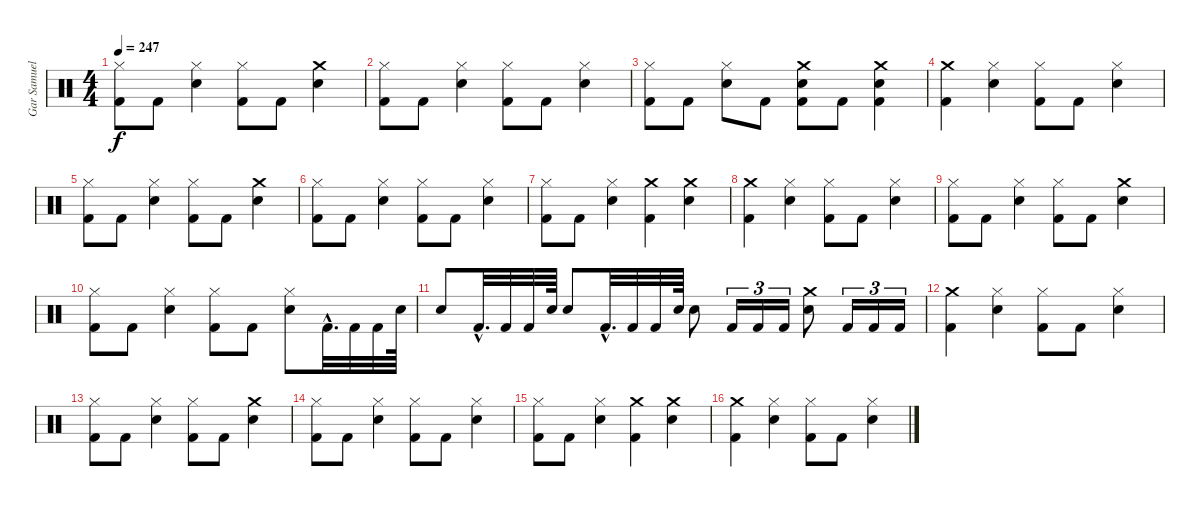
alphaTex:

\track ("Gar Samuelson (Drums)" "Gar Samuel") {instrument percussion}
\staff {score}
\articulation defaults
\ts (4 4)
\tempo 247
\clef neutral
\ks c
("Hi-Hat (closed)" "Kick (hit) 2").8{dy f} "Kick (hit) 2".8 ("Snare (hit) 2" "Hi-Hat (closed)").4 ("Hi-Hat (closed)" "Kick (hit) 2").8 "Kick (hit) 2".8 ("Crash medium (hit)" "Snare (hit) 2").4 |
("Hi-Hat (closed)" "Kick (hit) 2").8 "Kick (hit) 2".8 ("Snare (hit) 2" "Hi-Hat (closed)").4 ("Hi-Hat (closed)" "Kick (hit) 2").8 "Kick (hit) 2".8 ("Snare (hit) 2" "Hi-Hat (closed)").4 |
("Hi-Hat (closed)" "Kick (hit) 2").8 "Kick (hit) 2".8 ("Snare (hit) 2" "Hi-Hat (closed)").8 "Kick (hit) 2".8 ("Snare (hit) 2" "Crash medium (hit)" "Kick (hit) 2").8 "Kick (hit) 2".8 ("Kick (hit) 2" "Crash medium (hit)" "Snare (hit) 2").4 |
("Kick (hit) 2" "Crash medium (hit)").4 ("Hi-Hat (closed)" "Snare (hit) 2").4 ("Hi-Hat (closed)" "Kick (hit) 2").8 "Kick (hit) 2".8 ("Snare (hit) 2" "Hi-Hat (closed)").4 |
("Hi-Hat (closed)" "Kick (hit) 2").8 "Kick (hit) 2".8 ("Snare (hit) 2" "Hi-Hat (closed)").4 ("Hi-Hat (closed)" "Kick (hit) 2").8 "Kick (hit) 2".8 ("Crash medium (hit)" "Snare (hit) 2").4 |
("Hi-Hat (closed)" "Kick (hit) 2").8 "Kick (hit) 2".8 ("Snare (hit) 2" "Hi-Hat (closed)").4 ("Hi-Hat (closed)" "Kick (hit) 2").8 "Kick (hit) 2".8 ("Snare (hit) 2" "Hi-Hat (closed)").4 |
("Hi-Hat (closed)" "Kick (hit) 2").8 "Kick (hit) 2".8 ("Snare (hit) 2" "Hi-Hat (closed)").4 ("Crash medium (hit)" "Kick (hit) 2").4 ("Crash medium (hit)" "Snare (hit) 2").4 |
("Kick (hit) 2" "Crash medium (hit)").4 ("Hi-Hat (closed)" "Snare (hit) 2").4 ("Hi-Hat (closed)" "Kick (hit) 2").8 "Kick (hit) 2".8 ("Snare (hit) 2" "Hi-Hat (closed)").4 |
("Hi-Hat (closed)" "Kick (hit) 2").8 "Kick (hit) 2".8 ("Snare (hit) 2" "Hi-Hat (closed)").4 ("Hi-Hat (closed)" "Kick (hit) 2").8 "Kick (hit) 2".8 ("Crash medium (hit)" "Snare (hit) 2").4 |
("Hi-Hat (closed)" "Kick (hit) 2").8 "Kick (hit) 2".8 ("Snare (hit) 2" "Hi-Hat (closed)").4 ("Hi-Hat (closed)" "Kick (hit) 2").8 "Kick (hit) 2".8 ("Snare (hit) 2" "Hi-Hat (closed)").8 "Kick (hit) 2"{hac}.32{d} "Kick (hit) 2".32 "Kick (hit) 2".32 "Snare (hit) 2".64 |
"Snare (hit) 2".8 "Kick (hit) 2"{hac}.32{d} "Kick (hit) 2".32 "Kick (hit) 2".32 "Snare (hit) 2".64 "Snare (hit) 2".8 "Kick (hit) 2"{hac}.32{d} "Kick (hit) 2".32 "Kick (hit) 2".32 "Snare (hit) 2".64 "Snare (hit) 2".8 "Kick (hit) 2".16{tu (3 2)} "Kick (hit) 2".16{tu (3 2)} "Kick (hit) 2".16{tu (3 2)} ("Crash medium (hit)" "Snare (hit) 2").8 "Kick (hit) 2".16{tu (3 2)} "Kick (hit) 2".16{tu (3 2)} "Kick (hit) 2".16{tu (3 2)} |
("Kick (hit) 2" "Crash medium (hit)").4 ("Hi-Hat (closed)" "Snare (hit) 2").4 ("Hi-Hat (closed)" "Kick (hit) 2").8 "Kick (hit) 2".8 ("Snare (hit) 2" "Hi-Hat (closed)").4 |
("Hi-Hat (closed)" "Kick (hit) 2").8 "Kick (hit) 2".8 ("Snare (hit) 2" "Hi-Hat (closed)").4 ("Hi-Hat (closed)" "Kick (hit) 2").8 "Kick (hit) 2".8 ("Crash medium (hit)" "Snare (hit) 2").4 |
("Hi-Hat (closed)" "Kick (hit) 2").8 "Kick (hit) 2".8 ("Snare (hit) 2" "Hi-Hat (closed)").4 ("Hi-Hat (closed)" "Kick (hit) 2").8 "Kick (hit) 2".8 ("Snare (hit) 2" "Hi-Hat (closed)").4 |
("Hi-Hat (closed)" "Kick (hit) 2").8 "Kick (hit) 2".8 ("Snare (hit) 2" "Hi-Hat (closed)").4 ("Crash medium (hit)" "Kick (hit) 2").4 ("Crash medium (hit)" "Snare (hit) 2").4 |
("Kick (hit) 2" "Crash medium (hit)").4 ("Hi-Hat (closed)" "Snare (hit) 2").4 ("Hi-Hat (closed)" "Kick (hit) 2").8 "Kick (hit) 2".8 ("Snare (hit) 2" "Hi-Hat (closed)").4
